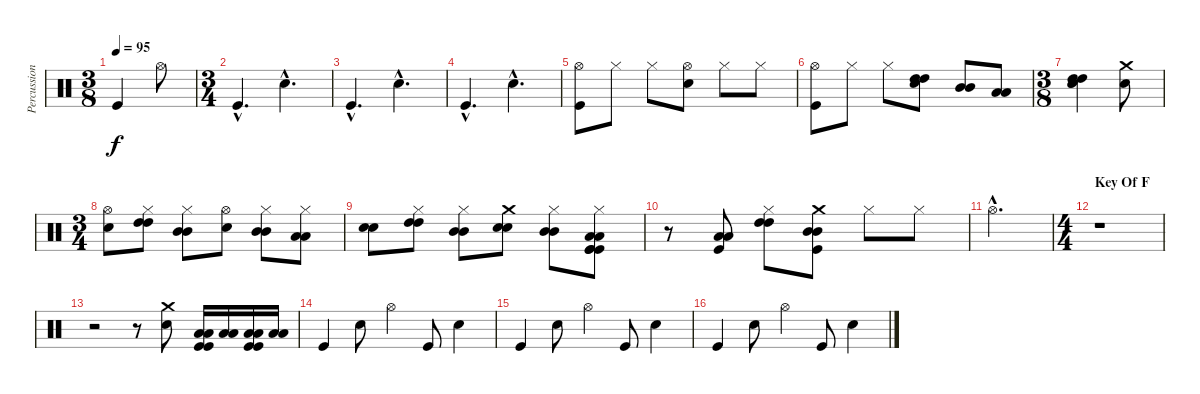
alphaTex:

\track ("Percussion" "Percussion") {instrument percussion}
\staff {score}
\articulation defaults
\ts (3 8)
\tempo 95
\clef neutral
\ks c "Kick (hit)".4{dy f} "Hi-Hat (open)".8
|
\ts (3 4)
"Kick (hit)"{hac}.4{d} "Snare (hit) 2"{hac}.4{d} |
"Kick (hit)"{hac}.4{d} "Snare (hit) 2"{hac}.4{d} |
"Kick (hit)"{hac}.4{d} "Snare (hit) 2"{hac}.4{d} |
("Hi-Hat (open)" "Kick (hit)").8 "Hi-Hat (closed)".8 "Hi-Hat (closed)".8 ("Hi-Hat (open)" "Snare (hit) 2").8 "Hi-Hat (closed)".8 "Hi-Hat (closed)".8 |
("Hi-Hat (open)" "Kick (hit)").8 "Hi-Hat (closed)".8 "Hi-Hat (closed)".8 ("High Tom (hit)" "High Tom (hit)" "Snare (hit) 2").8 ("Mid Tom (hit)" "Mid Tom (hit)").8 ("Low Tom (hit)" "Low Tom (hit)").8 |
\ts (3 8)
("High Tom (hit)" "High Tom (hit)" "Snare (hit) 2" "Snare (hit) 2").4 ("Crash medium (hit)" "Snare (hit) 2").8 |
\ts (3 4)
("Hi-Hat (open)" "Snare (hit) 2").8 ("Hi-Hat (closed)" "High Tom (hit)" "High Tom (hit)").8 ("Hi-Hat (closed)" "Mid Tom (hit)" "Mid Tom (hit)").8 ("Hi-Hat (open)" "Snare (hit) 2").8 ("Hi-Hat (closed)" "Mid Tom (hit)" "Mid Tom (hit)").8 ("Hi-Hat (closed)" "Low Tom (hit)" "Low Tom (hit)").8 |
("Snare (hit) 2" "Snare (hit) 2").8 ("Hi-Hat (closed)" "High Tom (hit)" "High Tom (hit)").8 ("Hi-Hat (closed)" "Mid Tom (hit)" "Mid Tom (hit)").8 ("Crash medium (hit)" "Snare (hit) 2" "Snare (hit) 2").8 ("Hi-Hat (closed)" "Mid Tom (hit)" "Mid Tom (hit)").8 ("Kick (hit)" "Kick (hit)" "Hi-Hat (closed)" "Low Tom (hit)" "Low Tom (hit)" "Kick (hit)").8 |
r.8 ("Low Tom (hit)" "Low Tom (hit)" "Kick (hit)").8 ("High Tom (hit)" "High Tom (hit)" "Hi-Hat (closed)").8 ("Crash medium (hit)" "Mid Tom (hit)" "Mid Tom (hit)" "Kick (hit)").8 "Hi-Hat (closed)".8 "Hi-Hat (closed)".8 |
"Hi-Hat (open)"{hac}.2{d} |
\ts (4 4)
\section ("" "Key Of F")
r.1 |
r.2 r.8 ("Crash medium (hit)" "Snare (hit) 2").8 ("Kick (hit)" "Low Tom (hit)" "Low Tom (hit)" "Kick (hit)").16 ("Low Tom (hit)" "Low Tom (hit)").16 ("Kick (hit)" "Low Floor Tom (hit)" "Low Floor Tom (hit)" "Kick (hit)").16 ("Low Floor Tom (hit)" "Low Floor Tom (hit)").16 |
"Kick (hit)".4 "Snare (hit) 2".8 "Hi-Hat (open)".4 "Kick (hit)".8 "Snare (hit) 2".4 |
"Kick (hit)".4 "Snare (hit) 2".8 "Hi-Hat (open)".4 "Kick (hit)".8 "Snare (hit) 2".4 |
"Kick (hit)".4 "Snare (hit) 2".8 "Hi-Hat (open)".4 "Kick (hit)".8 "Snare (hit) 2".4
